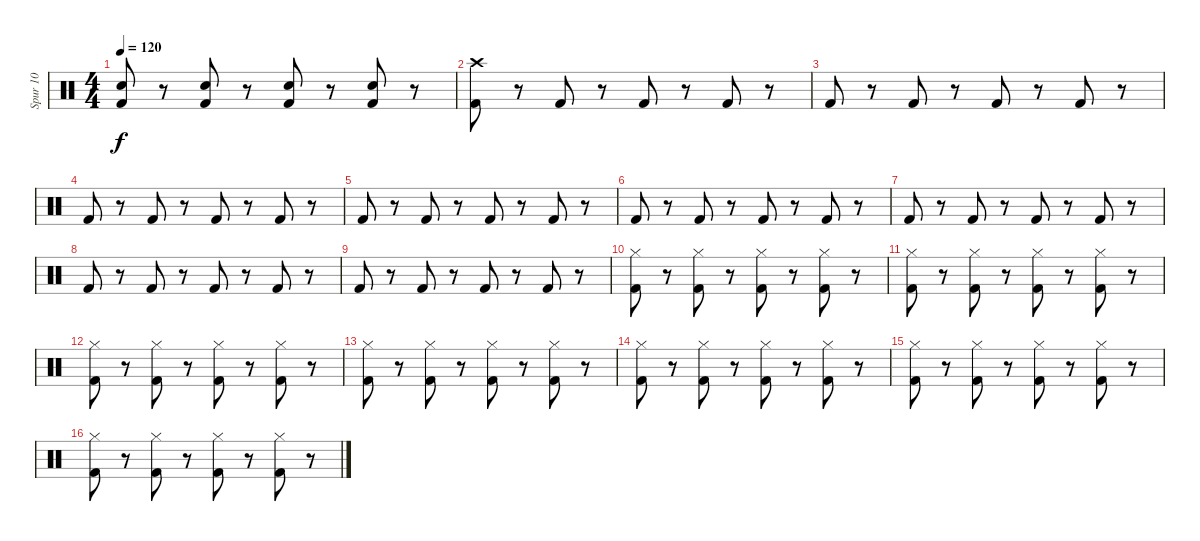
\track ("Spur 10" "Spur 10") {instrument percussion}
\staff {score}
\articulation defaults
\ts (4 4)
\tempo 120
\clef neutral
\ks c
("Hand Clap (hit)" "Kick (hit) 2").8{dy f} r.8 ("Hand Clap (hit)" "Kick (hit) 2").8 r.8 ("Hand Clap (hit)" "Kick (hit) 2").8 r.8 ("Hand Clap (hit)" "Kick (hit) 2").8 r.8 |
("Kick (hit) 2" "Crash high (hit)").8 r.8 "Kick (hit) 2".8 r.8 "Kick (hit) 2".8 r.8 "Kick (hit) 2".8 r.8 |
"Kick (hit) 2".8 r.8 "Kick (hit) 2".8 r.8 "Kick (hit) 2".8 r.8 "Kick (hit) 2".8 r.8 |
"Kick (hit) 2".8 r.8 "Kick (hit) 2".8 r.8 "Kick (hit) 2".8 r.8 "Kick (hit) 2".8 r.8 |
"Kick (hit) 2".8 r.8 "Kick (hit) 2".8 r.8 "Kick (hit) 2".8 r.8 "Kick (hit) 2".8 r.8 |
"Kick (hit) 2".8 r.8 "Kick (hit) 2".8 r.8 "Kick (hit) 2".8 r.8 "Kick (hit) 2".8 r.8 |
"Kick (hit) 2".8 r.8 "Kick (hit) 2".8 r.8 "Kick (hit) 2".8 r.8 "Kick (hit) 2".8 r.8 |
"Kick (hit) 2".8 r.8 "Kick (hit) 2".8 r.8 "Kick (hit) 2".8 r.8 "Kick (hit) 2".8 r.8 |
"Kick (hit) 2".8 r.8 "Kick (hit) 2".8 r.8 "Kick (hit) 2".8 r.8 "Kick (hit) 2".8 r.8 |
("Hi-Hat (closed)" "Kick (hit) 2").8 r.8 ("Hi-Hat (closed)" "Kick (hit) 2").8 r.8 ("Hi-Hat (closed)" "Kick (hit) 2").8 r.8 ("Hi-Hat (closed)" "Kick (hit) 2").8 r.8 |
("Hi-Hat (closed)" "Kick (hit) 2").8 r.8 ("Hi-Hat (closed)" "Kick (hit) 2").8 r.8 ("Hi-Hat (closed)" "Kick (hit) 2").8 r.8 ("Hi-Hat (closed)" "Kick (hit) 2").8 r.8 |
("Hi-Hat (closed)" "Kick (hit) 2").8 r.8 ("Hi-Hat (closed)" "Kick (hit) 2").8 r.8 ("Hi-Hat (closed)" "Kick (hit) 2").8 r.8 ("Hi-Hat (closed)" "Kick (hit) 2").8 r.8 |
("Hi-Hat (closed)" "Kick (hit) 2").8 r.8 ("Hi-Hat (closed)" "Kick (hit) 2").8 r.8 ("Hi-Hat (closed)" "Kick (hit) 2").8 r.8 ("Hi-Hat (closed)" "Kick (hit) 2").8 r.8 |
("Hi-Hat (closed)" "Kick (hit) 2").8 r.8 ("Hi-Hat (closed)" "Kick (hit) 2").8 r.8 ("Hi-Hat (closed)" "Kick (hit) 2").8 r.8 ("Hi-Hat (closed)" "Kick (hit) 2").8 r.8 |
("Hi-Hat (closed)" "Kick (hit) 2").8 r.8 ("Hi-Hat (closed)" "Kick (hit) 2").8 r.8 ("Hi-Hat (closed)" "Kick (hit) 2").8 r.8 ("Hi-Hat (closed)" "Kick (hit) 2").8 r.8 |
("Hi-Hat (closed)" "Kick (hit) 2").8 r.8 ("Hi-Hat (closed)" "Kick (hit) 2").8 r.8 ("Hi-Hat (closed)" "Kick (hit) 2").8 r.8 ("Hi-Hat (closed)" "Kick (hit) 2").8 r.8
